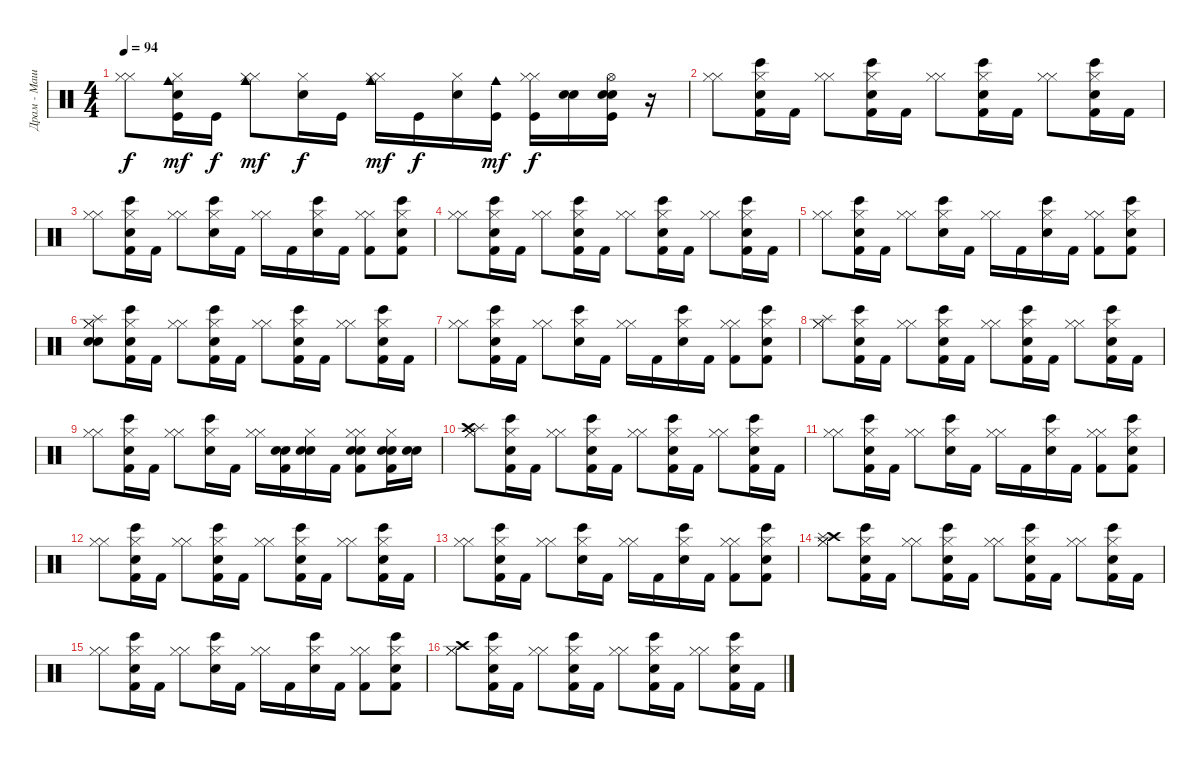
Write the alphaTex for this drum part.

\track ("Драм - Машина" "Драм - Маш") {instrument percussion}
\staff {score}
\articulation defaults
\ts (4 4)
\tempo 94
\clef neutral
\ks c
("Hi-Hat (closed)" "Hi-Hat (closed)").8{dy f} ("Snare (hit) 2" "Hi-Hat (closed)" "Kick (hit)" "Cowbell medium (hit)").16{dy mf} "Kick (hit)".16{dy f} ("Hi-Hat (closed)" "Cowbell medium (hit)" "Hi-Hat (closed)").8{dy mf} ("Snare (hit) 2" "Hi-Hat (closed)").16{dy f} "Kick (hit)".16 ("Cowbell medium (hit)" "Hi-Hat (closed)" "Hi-Hat (closed)").16{dy mf} "Kick (hit)".16{dy f} ("Hi-Hat (closed)" "Snare (hit) 2").16 ("Cowbell medium (hit)" "Kick (hit)").16{dy mf} ("Hi-Hat (closed)" "Hi-Hat (closed)" "Kick (hit)").16{dy f} ("Snare (hit) 2" "Electric Snare (hit)").16 ("Hi-Hat (open)" "Electric Snare (hit)" "Snare (hit) 2" "Kick (hit)").16 r.16 |
("Hi-Hat (closed)" "Hi-Hat (closed)").8 ("Bongo High (hit)" "Hi-Hat (closed)" "Snare (hit) 2" "Kick (hit) 2").16 "Kick (hit) 2".16 ("Hi-Hat (closed)" "Hi-Hat (closed)").8 ("Bongo High (hit)" "Snare (hit) 2" "Hi-Hat (closed)" "Kick (hit) 2").16 "Kick (hit) 2".16 ("Hi-Hat (closed)" "Hi-Hat (closed)").8 ("Bongo High (hit)" "Hi-Hat (closed)" "Snare (hit) 2" "Kick (hit) 2").16 "Kick (hit) 2".16 ("Hi-Hat (closed)" "Hi-Hat (closed)").8 ("Snare (hit) 2" "Hi-Hat (closed)" "Bongo High (hit)" "Kick (hit) 2").16 "Kick (hit) 2".16 |
("Hi-Hat (closed)" "Hi-Hat (closed)").8 ("Bongo High (hit)" "Hi-Hat (closed)" "Snare (hit) 2" "Kick (hit) 2").16 "Kick (hit) 2".16 ("Hi-Hat (closed)" "Hi-Hat (closed)").8 ("Hi-Hat (closed)" "Bongo High (hit)" "Snare (hit) 2").16 "Kick (hit) 2".16 ("Hi-Hat (closed)" "Hi-Hat (closed)").16 "Kick (hit) 2".16 ("Snare (hit) 2" "Hi-Hat (closed)" "Bongo High (hit)").16 "Kick (hit) 2".16 ("Hi-Hat (closed)" "Hi-Hat (closed)" "Kick (hit) 2").8 ("Snare (hit) 2" "Bongo High (hit)" "Hi-Hat (closed)" "Kick (hit) 2").8 |
("Hi-Hat (closed)" "Hi-Hat (closed)").8 ("Bongo High (hit)" "Hi-Hat (closed)" "Snare (hit) 2" "Kick (hit) 2").16 "Kick (hit) 2".16 ("Hi-Hat (closed)" "Hi-Hat (closed)").8 ("Bongo High (hit)" "Snare (hit) 2" "Hi-Hat (closed)" "Kick (hit) 2").16 "Kick (hit) 2".16 ("Hi-Hat (closed)" "Hi-Hat (closed)").8 ("Bongo High (hit)" "Snare (hit) 2" "Hi-Hat (closed)" "Kick (hit) 2").16 "Kick (hit) 2".16 ("Hi-Hat (closed)" "Hi-Hat (closed)").8 ("Snare (hit) 2" "Bongo High (hit)" "Hi-Hat (closed)" "Kick (hit) 2").16 "Kick (hit) 2".16 |
("Hi-Hat (closed)" "Hi-Hat (closed)").8 ("Hi-Hat (closed)" "Bongo High (hit)" "Snare (hit) 2" "Kick (hit) 2").16 "Kick (hit) 2".16 ("Hi-Hat (closed)" "Hi-Hat (closed)").8 ("Snare (hit) 2" "Bongo High (hit)" "Hi-Hat (closed)").16 "Kick (hit) 2".16 ("Hi-Hat (closed)" "Hi-Hat (closed)").16 "Kick (hit) 2".16 ("Snare (hit) 2" "Hi-Hat (closed)" "Bongo High (hit)").16 "Kick (hit) 2".16 ("Hi-Hat (closed)" "Hi-Hat (closed)" "Kick (hit) 2").8 ("Snare (hit) 2" "Bongo High (hit)" "Hi-Hat (closed)" "Kick (hit) 2").8 |
("Snare (hit) 2" "Hi-Hat (closed)" "Electric Snare (hit)" "Splash (hit)" "Hi-Hat (closed)").8 ("Hi-Hat (closed)" "Snare (hit) 2" "Bongo High (hit)" "Kick (hit) 2").16 "Kick (hit) 2".16 ("Hi-Hat (closed)" "Hi-Hat (closed)").8 ("Snare (hit) 2" "Bongo High (hit)" "Hi-Hat (closed)" "Kick (hit) 2").16 "Kick (hit) 2".16 ("Hi-Hat (closed)" "Hi-Hat (closed)").8 ("Bongo High (hit)" "Snare (hit) 2" "Hi-Hat (closed)" "Kick (hit) 2").16 "Kick (hit) 2".16 ("Hi-Hat (closed)" "Hi-Hat (closed)").8 ("Hi-Hat (closed)" "Snare (hit) 2" "Bongo High (hit)" "Kick (hit) 2").16 "Kick (hit) 2".16 |
("Hi-Hat (closed)" "Hi-Hat (closed)").8 ("Hi-Hat (closed)" "Bongo High (hit)" "Snare (hit) 2" "Kick (hit) 2").16 "Kick (hit) 2".16 ("Hi-Hat (closed)" "Hi-Hat (closed)").8 ("Bongo High (hit)" "Snare (hit) 2" "Hi-Hat (closed)").16 "Kick (hit) 2".16 ("Hi-Hat (closed)" "Hi-Hat (closed)").16 "Kick (hit) 2".16 ("Snare (hit) 2" "Bongo High (hit)" "Hi-Hat (closed)").16 "Kick (hit) 2".16 ("Hi-Hat (closed)" "Hi-Hat (closed)" "Kick (hit) 2").8 ("Hi-Hat (closed)" "Bongo High (hit)" "Snare (hit) 2" "Kick (hit) 2").8 |
("Hi-Hat (closed)" "Hi-Hat (closed)" "Splash (hit)").8 ("Snare (hit) 2" "Bongo High (hit)" "Hi-Hat (closed)" "Kick (hit) 2").16 "Kick (hit) 2".16 ("Hi-Hat (closed)" "Hi-Hat (closed)").8 ("Hi-Hat (closed)" "Snare (hit) 2" "Bongo High (hit)" "Kick (hit) 2").16 "Kick (hit) 2".16 ("Hi-Hat (closed)" "Hi-Hat (closed)").8 ("Snare (hit) 2" "Bongo High (hit)" "Hi-Hat (closed)" "Kick (hit) 2").16 "Kick (hit) 2".16 ("Hi-Hat (closed)" "Hi-Hat (closed)").8 ("Hi-Hat (closed)" "Bongo High (hit)" "Snare (hit) 2" "Kick (hit) 2").16 "Kick (hit) 2".16 |
("Hi-Hat (closed)" "Hi-Hat (closed)").8 ("Bongo High (hit)" "Snare (hit) 2" "Hi-Hat (closed)" "Kick (hit) 2").16 "Kick (hit) 2".16 ("Hi-Hat (closed)" "Hi-Hat (closed)").8 ("Hi-Hat (closed)" "Snare (hit) 2" "Bongo High (hit)").16 "Kick (hit) 2".16 ("Hi-Hat (closed)" "Hi-Hat (closed)").16 ("Electric Snare (hit)" "Snare (hit) 2" "Kick (hit) 2").16 ("Hi-Hat (closed)" "Electric Snare (hit)" "Snare (hit) 2").16 "Kick (hit) 2".16 ("Hi-Hat (closed)" "Electric Snare (hit)" "Hi-Hat (closed)" "Snare (hit) 2" "Kick (hit) 2").8 ("Electric Snare (hit)" "Snare (hit) 2" "Hi-Hat (closed)" "Kick (hit) 2").16 ("Electric Snare (hit)" "Snare (hit) 2").16 |
("Splash (hit)" "Hi-Hat (closed)" "Hi-Hat (closed)" "Crash high (hit)").8 ("Hi-Hat (closed)" "Bongo High (hit)" "Snare (hit) 2" "Kick (hit) 2").16 "Kick (hit) 2".16 ("Hi-Hat (closed)" "Hi-Hat (closed)").8 ("Snare (hit) 2" "Hi-Hat (closed)" "Bongo High (hit)" "Kick (hit) 2").16 "Kick (hit) 2".16 ("Hi-Hat (closed)" "Hi-Hat (closed)").8 ("Hi-Hat (closed)" "Bongo High (hit)" "Snare (hit) 2" "Kick (hit) 2").16 "Kick (hit) 2".16 ("Hi-Hat (closed)" "Hi-Hat (closed)").8 ("Snare (hit) 2" "Hi-Hat (closed)" "Bongo High (hit)" "Kick (hit) 2").16 "Kick (hit) 2".16 |
("Hi-Hat (closed)" "Hi-Hat (closed)").8 ("Hi-Hat (closed)" "Snare (hit) 2" "Bongo High (hit)" "Kick (hit) 2").16 "Kick (hit) 2".16 ("Hi-Hat (closed)" "Hi-Hat (closed)").8 ("Bongo High (hit)" "Hi-Hat (closed)" "Snare (hit) 2").16 "Kick (hit) 2".16 ("Hi-Hat (closed)" "Hi-Hat (closed)").16 "Kick (hit) 2".16 ("Hi-Hat (closed)" "Bongo High (hit)" "Snare (hit) 2").16 "Kick (hit) 2".16 ("Hi-Hat (closed)" "Hi-Hat (closed)" "Kick (hit) 2").8 ("Bongo High (hit)" "Snare (hit) 2" "Hi-Hat (closed)" "Kick (hit) 2").8 |
("Hi-Hat (closed)" "Hi-Hat (closed)").8 ("Hi-Hat (closed)" "Bongo High (hit)" "Snare (hit) 2" "Kick (hit) 2").16 "Kick (hit) 2".16 ("Hi-Hat (closed)" "Hi-Hat (closed)").8 ("Snare (hit) 2" "Hi-Hat (closed)" "Bongo High (hit)" "Kick (hit) 2").16 "Kick (hit) 2".16 ("Hi-Hat (closed)" "Hi-Hat (closed)").8 ("Hi-Hat (closed)" "Snare (hit) 2" "Bongo High (hit)" "Kick (hit) 2").16 "Kick (hit) 2".16 ("Hi-Hat (closed)" "Hi-Hat (closed)").8 ("Snare (hit) 2" "Bongo High (hit)" "Hi-Hat (closed)" "Kick (hit) 2").16 "Kick (hit) 2".16 |
("Hi-Hat (closed)" "Hi-Hat (closed)").8 ("Bongo High (hit)" "Hi-Hat (closed)" "Snare (hit) 2" "Kick (hit) 2").16 "Kick (hit) 2".16 ("Hi-Hat (closed)" "Hi-Hat (closed)").8 ("Bongo High (hit)" "Snare (hit) 2" "Hi-Hat (closed)").16 "Kick (hit) 2".16 ("Hi-Hat (closed)" "Hi-Hat (closed)").16 "Kick (hit) 2".16 ("Snare (hit) 2" "Bongo High (hit)" "Hi-Hat (closed)").16 "Kick (hit) 2".16 ("Hi-Hat (closed)" "Hi-Hat (closed)" "Kick (hit) 2").8 ("Snare (hit) 2" "Hi-Hat (closed)" "Bongo High (hit)" "Kick (hit) 2").8 |
("Hi-Hat (closed)" "Crash high (hit)" "Splash (hit)" "Hi-Hat (closed)").8 ("Bongo High (hit)" "Hi-Hat (closed)" "Snare (hit) 2" "Kick (hit) 2").16 "Kick (hit) 2".16 ("Hi-Hat (closed)" "Hi-Hat (closed)").8 ("Snare (hit) 2" "Hi-Hat (closed)" "Bongo High (hit)" "Kick (hit) 2").16 "Kick (hit) 2".16 ("Hi-Hat (closed)" "Hi-Hat (closed)").8 ("Snare (hit) 2" "Bongo High (hit)" "Hi-Hat (closed)" "Kick (hit) 2").16 "Kick (hit) 2".16 ("Hi-Hat (closed)" "Hi-Hat (closed)").8 ("Bongo High (hit)" "Hi-Hat (closed)" "Snare (hit) 2" "Kick (hit) 2").16 "Kick (hit) 2".16 |
("Hi-Hat (closed)" "Hi-Hat (closed)").8 ("Hi-Hat (closed)" "Bongo High (hit)" "Snare (hit) 2" "Kick (hit) 2").16 "Kick (hit) 2".16 ("Hi-Hat (closed)" "Hi-Hat (closed)").8 ("Hi-Hat (closed)" "Bongo High (hit)" "Snare (hit) 2").16 "Kick (hit) 2".16 ("Hi-Hat (closed)" "Hi-Hat (closed)").16 "Kick (hit) 2".16 ("Hi-Hat (closed)" "Bongo High (hit)" "Snare (hit) 2").16 "Kick (hit) 2".16 ("Hi-Hat (closed)" "Hi-Hat (closed)" "Kick (hit) 2").8 ("Snare (hit) 2" "Hi-Hat (closed)" "Bongo High (hit)" "Kick (hit) 2").8 |
("Crash high (hit)" "Hi-Hat (closed)" "Hi-Hat (closed)").8 ("Snare (hit) 2" "Hi-Hat (closed)" "Bongo High (hit)" "Kick (hit) 2").16 "Kick (hit) 2".16 ("Hi-Hat (closed)" "Hi-Hat (closed)").8 ("Snare (hit) 2" "Bongo High (hit)" "Hi-Hat (closed)" "Kick (hit) 2").16 "Kick (hit) 2".16 ("Hi-Hat (closed)" "Hi-Hat (closed)").8 ("Hi-Hat (closed)" "Snare (hit) 2" "Bongo High (hit)" "Kick (hit) 2").16 "Kick (hit) 2".16 ("Hi-Hat (closed)" "Hi-Hat (closed)").8 ("Snare (hit) 2" "Bongo High (hit)" "Hi-Hat (closed)" "Kick (hit) 2").16 "Kick (hit) 2".16
